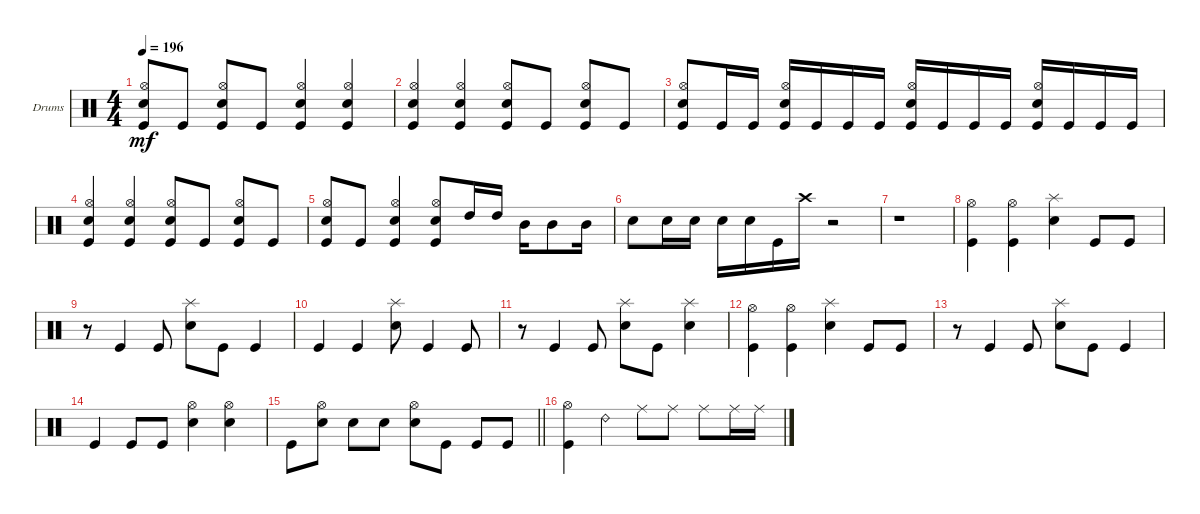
\defaultSystemsLayout 4
\bracketExtendMode groupsimilarinstruments
\firstSystemTrackNameOrientation horizontal
\otherSystemsTrackNameOrientation horizontal
\track ("Drumkit" "Drums") {instrument percussion}
\staff {score}
\articulation defaults
\ts (4 4)
\tempo 196
\clef neutral
\scale
0.333333
\ks c
("Snare (hit) 2" "Hi-Hat (open)" "Kick (hit)").8{dy mf} "Kick (hit)".8 ("Snare (hit) 2" "Hi-Hat (open)" "Kick (hit)").8 "Kick (hit)".8 ("Snare (hit) 2" "Hi-Hat (open)" "Kick (hit)").4 ("Kick (hit)" "Snare (hit) 2" "Hi-Hat (open)").4 |
\scale
0.333333 ("Snare (hit) 2" "Hi-Hat (open)" "Kick (hit)").4 ("Kick (hit)" "Snare (hit) 2" "Hi-Hat (open)").4 ("Snare (hit) 2" "Hi-Hat (open)" "Kick (hit)").8 "Kick (hit)".8 ("Snare (hit) 2" "Hi-Hat (open)" "Kick (hit)").8 "Kick (hit)".8 |
\scale
0.333333 ("Snare (hit) 2" "Hi-Hat (open)" "Kick (hit)").8 "Kick (hit)".16 "Kick (hit)".16 ("Kick (hit)" "Snare (hit) 2" "Hi-Hat (open)").16 "Kick (hit)".16 "Kick (hit)".16 "Kick (hit)".16 ("Kick (hit)" "Snare (hit) 2" "Hi-Hat (open)").16 "Kick (hit)".16 "Kick (hit)".16 "Kick (hit)".16 ("Kick (hit)" "Snare (hit) 2" "Hi-Hat (open)").16 "Kick (hit)".16 "Kick (hit)".16 "Kick (hit)".16 |
\scale
0.333333 ("Kick (hit)" "Snare (hit) 2" "Hi-Hat (open)").4 ("Kick (hit)" "Snare (hit) 2" "Hi-Hat (open)").4 ("Hi-Hat (open)" "Snare (hit) 2" "Kick (hit)").8 "Kick (hit)".8 ("Snare (hit) 2" "Hi-Hat (open)" "Kick (hit)").8 "Kick (hit)".8 |
\scale
0.333333 ("Hi-Hat (open)" "Snare (hit) 2" "Kick (hit)").8 "Kick (hit)".8 ("Kick (hit)" "Snare (hit) 2" "Hi-Hat (open)").4 ("Snare (hit) 2" "Hi-Hat (open)" "Kick (hit)").8 "High Tom (hit)".16 "High Tom (hit)".16 "Mid Tom (hit)".16 "Mid Tom (hit)".8 "Mid Tom (hit)".16 |
\scale
0.333333 "Snare (hit) 2".8 "Snare (hit) 2".16 "Snare (hit) 2".16 "Snare (hit) 2".16 "Snare (hit) 2".16 "Kick (hit)".16 "Crash high (hit)".16 r.2 |
\scale
0.333333 r.1 |
\scale
0.333333 ("Kick (hit)" "Hi-Hat (open)").4 ("Kick (hit)" "Hi-Hat (open)").4 ("Snare (hit) 2" "Splash (hit)").4 "Kick (hit)".8 "Kick (hit)".8 |
\scale
0.333333 r.8 "Kick (hit)".4 "Kick (hit)".8 ("Snare (hit) 2" "Splash (hit)").8 "Kick (hit)".8 "Kick (hit)".4 |
\scale
0.333333 "Kick (hit)".4 "Kick (hit)".4 ("Snare (hit) 2" "Splash (hit)").8 "Kick (hit)".4 "Kick (hit)".8 |
\scale
0.333333 r.8 "Kick (hit)".4 "Kick (hit)".8 ("Snare (hit) 2" "Splash (hit)").8 "Kick (hit)".8 ("Snare (hit) 2" "Splash (hit)").4 |
\scale
0.333333 ("Kick (hit)" "Hi-Hat (open)").4 ("Kick (hit)" "Hi-Hat (open)").4 ("Snare (hit) 2" "Splash (hit)").4 "Kick (hit)".8 "Kick (hit)".8 |
\scale
0.333333 r.8 "Kick (hit)".4 "Kick (hit)".8 ("Snare (hit) 2" "Splash (hit)").8 "Kick (hit)".8 "Kick (hit)".4 |
\scale
0.333333 "Kick (hit)".4 "Kick (hit)".8 "Kick (hit)".8 ("Snare (hit) 2" "Hi-Hat (open)").4 ("Snare (hit) 2" "Hi-Hat (open)").4 |
\scale
0.333333
\barLineRight lightlight "Kick (hit)".8
("Snare (hit) 2" "Hi-Hat (open)").8 "Snare (hit) 2".8 "Snare (hit) 2".8 ("Snare (hit) 2" "Hi-Hat (open)").8 "Kick (hit)".8 "Kick (hit)".8 "Kick (hit)".8 |
\scale
0.333333 ("Kick (hit)" "Hi-Hat (open)").4 "Ride (bell) 2".4 "Ride (middle)".8 "Ride (middle)".8 "Ride (middle)".8 "Ride (middle)".16 "Ride (middle)".16
